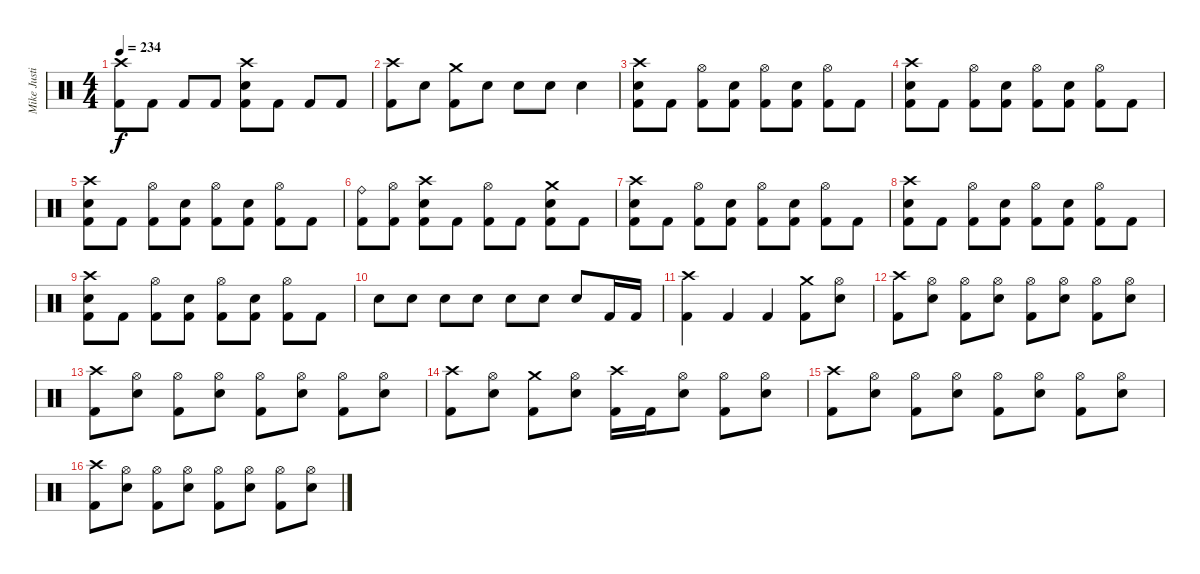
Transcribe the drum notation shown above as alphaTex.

\track ("Mike Justian (Drums)" "Mike Justi") {instrument percussion}
\staff {score}
\articulation defaults
\ts (4 4)
\tempo 234
\clef neutral
\ks c
("Crash high (hit)" "Kick (hit) 2").8{dy f} "Kick (hit) 2".8 "Kick (hit) 2".8 "Kick (hit) 2".8 ("Kick (hit) 2" "Crash high (hit)" "Snare (hit) 2").8 "Kick (hit) 2".8 "Kick (hit) 2".8 "Kick (hit) 2".8 |
("Crash high (hit)" "Kick (hit) 2").8 "Snare (hit) 2".8 ("Crash medium (hit)" "Kick (hit) 2").8 "Snare (hit) 2".8 "Snare (hit) 2".8 "Snare (hit) 2".8 "Snare (hit) 2".4 |
("Crash high (hit)" "Kick (hit) 2" "Snare (hit) 2").8 "Kick (hit) 2".8 ("Hi-Hat (open)" "Kick (hit) 2").8 ("Kick (hit) 2" "Snare (hit) 2").8 ("Hi-Hat (open)" "Kick (hit) 2").8 ("Kick (hit) 2" "Snare (hit) 2").8 ("Hi-Hat (open)" "Kick (hit) 2").8 "Kick (hit) 2".8 |
("Crash high (hit)" "Kick (hit) 2" "Snare (hit) 2").8 "Kick (hit) 2".8 ("Hi-Hat (open)" "Kick (hit) 2").8 ("Kick (hit) 2" "Snare (hit) 2").8 ("Hi-Hat (open)" "Kick (hit) 2").8 ("Kick (hit) 2" "Snare (hit) 2").8 ("Hi-Hat (open)" "Kick (hit) 2").8 "Kick (hit) 2".8 |
("Crash high (hit)" "Kick (hit) 2" "Snare (hit) 2").8 "Kick (hit) 2".8 ("Hi-Hat (open)" "Kick (hit) 2").8 ("Kick (hit) 2" "Snare (hit) 2").8 ("Hi-Hat (open)" "Kick (hit) 2").8 ("Kick (hit) 2" "Snare (hit) 2").8 ("Hi-Hat (open)" "Kick (hit) 2").8 "Kick (hit) 2".8 |
("Ride (bell)" "Kick (hit) 2").8 ("Hi-Hat (open)" "Kick (hit) 2").8 ("Crash high (hit)" "Snare (hit) 2" "Kick (hit) 2").8 "Kick (hit) 2".8 ("Hi-Hat (open)" "Kick (hit) 2").8 "Kick (hit) 2".8 ("Kick (hit) 2" "Crash medium (hit)" "Snare (hit) 2").8 "Kick (hit) 2".8 |
("Crash high (hit)" "Kick (hit) 2" "Snare (hit) 2").8 "Kick (hit) 2".8 ("Hi-Hat (open)" "Kick (hit) 2").8 ("Kick (hit) 2" "Snare (hit) 2").8 ("Hi-Hat (open)" "Kick (hit) 2").8 ("Kick (hit) 2" "Snare (hit) 2").8 ("Hi-Hat (open)" "Kick (hit) 2").8 "Kick (hit) 2".8 |
("Crash high (hit)" "Kick (hit) 2" "Snare (hit) 2").8 "Kick (hit) 2".8 ("Hi-Hat (open)" "Kick (hit) 2").8 ("Kick (hit) 2" "Snare (hit) 2").8 ("Hi-Hat (open)" "Kick (hit) 2").8 ("Kick (hit) 2" "Snare (hit) 2").8 ("Hi-Hat (open)" "Kick (hit) 2").8 "Kick (hit) 2".8 |
("Crash high (hit)" "Kick (hit) 2" "Snare (hit) 2").8 "Kick (hit) 2".8 ("Hi-Hat (open)" "Kick (hit) 2").8 ("Kick (hit) 2" "Snare (hit) 2").8 ("Hi-Hat (open)" "Kick (hit) 2").8 ("Kick (hit) 2" "Snare (hit) 2").8 ("Hi-Hat (open)" "Kick (hit) 2").8 "Kick (hit) 2".8 |
"Snare (hit) 2".8 "Snare (hit) 2".8 "Snare (hit) 2".8 "Snare (hit) 2".8 "Snare (hit) 2".8 "Snare (hit) 2".8 "Snare (hit) 2".8 "Kick (hit) 2".16 "Kick (hit) 2".16 |
("Crash high (hit)" "Kick (hit) 2").4 "Kick (hit) 2".4 "Kick (hit) 2".4 ("Crash medium (hit)" "Kick (hit) 2").8 ("Hi-Hat (open)" "Snare (hit) 2").8 |
("Crash high (hit)" "Kick (hit) 2").8 ("Hi-Hat (open)" "Snare (hit) 2").8 ("Hi-Hat (open)" "Kick (hit) 2").8 ("Hi-Hat (open)" "Snare (hit) 2").8 ("Hi-Hat (open)" "Kick (hit) 2").8 ("Hi-Hat (open)" "Snare (hit) 2").8 ("Hi-Hat (open)" "Kick (hit) 2").8 ("Hi-Hat (open)" "Snare (hit) 2").8 |
("Crash high (hit)" "Kick (hit) 2").8 ("Hi-Hat (open)" "Snare (hit) 2").8 ("Hi-Hat (open)" "Kick (hit) 2").8 ("Hi-Hat (open)" "Snare (hit) 2").8 ("Hi-Hat (open)" "Kick (hit) 2").8 ("Hi-Hat (open)" "Snare (hit) 2").8 ("Hi-Hat (open)" "Kick (hit) 2").8 ("Hi-Hat (open)" "Snare (hit) 2").8 |
("Crash high (hit)" "Kick (hit) 2").8 ("Hi-Hat (open)" "Snare (hit) 2").8 ("Crash medium (hit)" "Kick (hit) 2").8 ("Hi-Hat (open)" "Snare (hit) 2").8 ("Crash high (hit)" "Kick (hit) 2").16 "Kick (hit) 2".16 ("Hi-Hat (open)" "Snare (hit) 2").8 ("Hi-Hat (open)" "Kick (hit) 2").8 ("Hi-Hat (open)" "Snare (hit) 2").8 |
("Crash high (hit)" "Kick (hit) 2").8 ("Hi-Hat (open)" "Snare (hit) 2").8 ("Hi-Hat (open)" "Kick (hit) 2").8 ("Hi-Hat (open)" "Snare (hit) 2").8 ("Hi-Hat (open)" "Kick (hit) 2").8 ("Hi-Hat (open)" "Snare (hit) 2").8 ("Hi-Hat (open)" "Kick (hit) 2").8 ("Hi-Hat (open)" "Snare (hit) 2").8 |
("Crash high (hit)" "Kick (hit) 2").8 ("Hi-Hat (open)" "Snare (hit) 2").8 ("Hi-Hat (open)" "Kick (hit) 2").8 ("Hi-Hat (open)" "Snare (hit) 2").8 ("Hi-Hat (open)" "Kick (hit) 2").8 ("Hi-Hat (open)" "Snare (hit) 2").8 ("Hi-Hat (open)" "Kick (hit) 2").8 ("Hi-Hat (open)" "Snare (hit) 2").8
